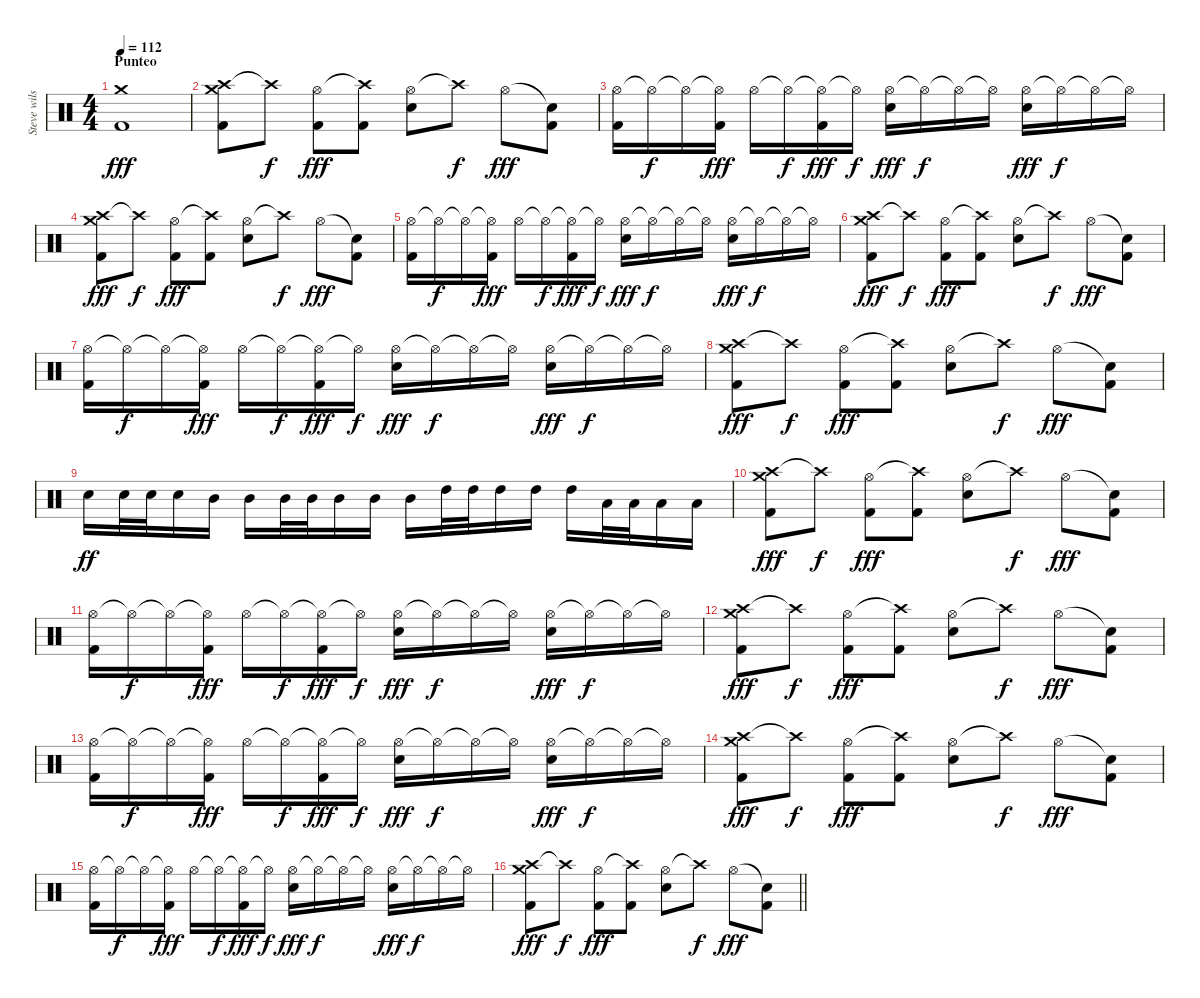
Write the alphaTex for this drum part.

\track ("Steve wilson" "Steve wils") {instrument percussion}
\staff {score}
\articulation defaults
\ts (4 4)
\section ("" "Punteo")
\tempo 112
\clef neutral
\ks c
("Crash medium (hit)" "Kick (hit) 2").1{dy fff} |
("Crash high (hit)" "Crash medium (hit)" "Kick (hit) 2").8 "Crash high (hit)"{t}.8{dy f} ("Hi-Hat (open)" "Kick (hit) 2").8{dy fff} ("Crash high (hit)"{t} "Kick (hit) 2").8 ("Hi-Hat (open)" "Electric Snare (hit)").8 "Crash high (hit)"{t}.8{dy f} "Hi-Hat (open)".8{dy fff} ("Snare (hit)"{t} "Kick (hit) 2").8 |
("Hi-Hat (open)" "Kick (hit) 2").16 "Hi-Hat (open)"{t}.16{dy f} "Hi-Hat (open)"{t}.16 ("Hi-Hat (open)"{t} "Kick (hit) 2").16{dy fff} "Hi-Hat (open)".16 "Hi-Hat (open)"{t}.16{dy f} ("Hi-Hat (open)"{t} "Kick (hit) 2").16{dy fff} "Hi-Hat (open)"{t}.16{dy f} ("Hi-Hat (open)" "Electric Snare (hit)").16{dy fff} "Hi-Hat (open)"{t}.16{dy f} "Hi-Hat (open)"{t}.16 "Hi-Hat (open)"{t}.16 ("Hi-Hat (open)" "Electric Snare (hit)").16{dy fff} "Hi-Hat (open)"{t}.16{dy f} "Hi-Hat (open)"{t}.16 "Hi-Hat (open)"{t}.16 |
("Crash high (hit)" "Crash medium (hit)" "Kick (hit) 2").8{dy fff} "Crash high (hit)"{t}.8{dy f} ("Hi-Hat (open)" "Kick (hit) 2").8{dy fff} ("Crash high (hit)"{t} "Kick (hit) 2").8 ("Hi-Hat (open)" "Electric Snare (hit)").8 "Crash high (hit)"{t}.8{dy f} "Hi-Hat (open)".8{dy fff} ("Snare (hit)"{t} "Kick (hit) 2").8 |
("Hi-Hat (open)" "Kick (hit) 2").16 "Hi-Hat (open)"{t}.16{dy f} "Hi-Hat (open)"{t}.16 ("Hi-Hat (open)"{t} "Kick (hit) 2").16{dy fff} "Hi-Hat (open)".16 "Hi-Hat (open)"{t}.16{dy f} ("Hi-Hat (open)"{t} "Kick (hit) 2").16{dy fff} "Hi-Hat (open)"{t}.16{dy f} ("Hi-Hat (open)" "Electric Snare (hit)").16{dy fff} "Hi-Hat (open)"{t}.16{dy f} "Hi-Hat (open)"{t}.16 "Hi-Hat (open)"{t}.16 ("Hi-Hat (open)" "Electric Snare (hit)").16{dy fff} "Hi-Hat (open)"{t}.16{dy f} "Hi-Hat (open)"{t}.16 "Hi-Hat (open)"{t}.16 |
("Crash high (hit)" "Crash medium (hit)" "Kick (hit) 2").8{dy fff} "Crash high (hit)"{t}.8{dy f} ("Hi-Hat (open)" "Kick (hit) 2").8{dy fff} ("Crash high (hit)"{t} "Kick (hit) 2").8 ("Hi-Hat (open)" "Electric Snare (hit)").8 "Crash high (hit)"{t}.8{dy f} "Hi-Hat (open)".8{dy fff} ("Snare (hit)"{t} "Kick (hit) 2").8 |
("Hi-Hat (open)" "Kick (hit) 2").16 "Hi-Hat (open)"{t}.16{dy f} "Hi-Hat (open)"{t}.16 ("Hi-Hat (open)"{t} "Kick (hit) 2").16{dy fff} "Hi-Hat (open)".16 "Hi-Hat (open)"{t}.16{dy f} ("Hi-Hat (open)"{t} "Kick (hit) 2").16{dy fff} "Hi-Hat (open)"{t}.16{dy f} ("Hi-Hat (open)" "Electric Snare (hit)").16{dy fff} "Hi-Hat (open)"{t}.16{dy f} "Hi-Hat (open)"{t}.16 "Hi-Hat (open)"{t}.16 ("Hi-Hat (open)" "Electric Snare (hit)").16{dy fff} "Hi-Hat (open)"{t}.16{dy f} "Hi-Hat (open)"{t}.16 "Hi-Hat (open)"{t}.16 |
("Crash high (hit)" "Crash medium (hit)" "Kick (hit) 2").8{dy fff} "Crash high (hit)"{t}.8{dy f} ("Hi-Hat (open)" "Kick (hit) 2").8{dy fff} ("Crash high (hit)"{t} "Kick (hit) 2").8 ("Hi-Hat (open)" "Electric Snare (hit)").8 "Crash high (hit)"{t}.8{dy f} "Hi-Hat (open)".8{dy fff} ("Snare (hit)"{t} "Kick (hit) 2").8 |
"Electric Snare (hit)".16{dy ff} "Electric Snare (hit)".32 "Electric Snare (hit)".32 "Electric Snare (hit)".16 "Mid Tom (hit)".16 "Mid Tom (hit)".16 "Mid Tom (hit)".32 "Mid Tom (hit)".32 "Mid Tom (hit)".16 "Mid Tom (hit)".16 "Mid Tom (hit)".16 "High Tom (hit)".32 "High Tom (hit)".32 "High Tom (hit)".16 "High Tom (hit)".16 "High Tom (hit)".16 "Low Tom (hit)".32 "Low Tom (hit)".32 "Low Tom (hit)".16 "Low Tom (hit)".16 |
("Crash high (hit)" "Crash medium (hit)" "Kick (hit) 2").8{dy fff} "Crash high (hit)"{t}.8{dy f} ("Hi-Hat (open)" "Kick (hit) 2").8{dy fff} ("Crash high (hit)"{t} "Kick (hit) 2").8 ("Hi-Hat (open)" "Electric Snare (hit)").8 "Crash high (hit)"{t}.8{dy f} "Hi-Hat (open)".8{dy fff} ("Snare (hit)"{t} "Kick (hit) 2").8 |
("Hi-Hat (open)" "Kick (hit) 2").16 "Hi-Hat (open)"{t}.16{dy f} "Hi-Hat (open)"{t}.16 ("Hi-Hat (open)"{t} "Kick (hit) 2").16{dy fff} "Hi-Hat (open)".16 "Hi-Hat (open)"{t}.16{dy f} ("Hi-Hat (open)"{t} "Kick (hit) 2").16{dy fff} "Hi-Hat (open)"{t}.16{dy f} ("Hi-Hat (open)" "Electric Snare (hit)").16{dy fff} "Hi-Hat (open)"{t}.16{dy f} "Hi-Hat (open)"{t}.16 "Hi-Hat (open)"{t}.16 ("Hi-Hat (open)" "Electric Snare (hit)").16{dy fff} "Hi-Hat (open)"{t}.16{dy f} "Hi-Hat (open)"{t}.16 "Hi-Hat (open)"{t}.16 |
("Crash high (hit)" "Crash medium (hit)" "Kick (hit) 2").8{dy fff} "Crash high (hit)"{t}.8{dy f} ("Hi-Hat (open)" "Kick (hit) 2").8{dy fff} ("Crash high (hit)"{t} "Kick (hit) 2").8 ("Hi-Hat (open)" "Electric Snare (hit)").8 "Crash high (hit)"{t}.8{dy f} "Hi-Hat (open)".8{dy fff} ("Snare (hit)"{t} "Kick (hit) 2").8 |
("Hi-Hat (open)" "Kick (hit) 2").16 "Hi-Hat (open)"{t}.16{dy f} "Hi-Hat (open)"{t}.16 ("Hi-Hat (open)"{t} "Kick (hit) 2").16{dy fff} "Hi-Hat (open)".16 "Hi-Hat (open)"{t}.16{dy f} ("Hi-Hat (open)"{t} "Kick (hit) 2").16{dy fff} "Hi-Hat (open)"{t}.16{dy f} ("Hi-Hat (open)" "Electric Snare (hit)").16{dy fff} "Hi-Hat (open)"{t}.16{dy f} "Hi-Hat (open)"{t}.16 "Hi-Hat (open)"{t}.16 ("Hi-Hat (open)" "Electric Snare (hit)").16{dy fff} "Hi-Hat (open)"{t}.16{dy f} "Hi-Hat (open)"{t}.16 "Hi-Hat (open)"{t}.16 |
("Crash high (hit)" "Crash medium (hit)" "Kick (hit) 2").8{dy fff} "Crash high (hit)"{t}.8{dy f} ("Hi-Hat (open)" "Kick (hit) 2").8{dy fff} ("Crash high (hit)"{t} "Kick (hit) 2").8 ("Hi-Hat (open)" "Electric Snare (hit)").8 "Crash high (hit)"{t}.8{dy f} "Hi-Hat (open)".8{dy fff} ("Snare (hit)"{t} "Kick (hit) 2").8 |
("Hi-Hat (open)" "Kick (hit) 2").16 "Hi-Hat (open)"{t}.16{dy f} "Hi-Hat (open)"{t}.16 ("Hi-Hat (open)"{t} "Kick (hit) 2").16{dy fff} "Hi-Hat (open)".16 "Hi-Hat (open)"{t}.16{dy f} ("Hi-Hat (open)"{t} "Kick (hit) 2").16{dy fff} "Hi-Hat (open)"{t}.16{dy f} ("Hi-Hat (open)" "Electric Snare (hit)").16{dy fff} "Hi-Hat (open)"{t}.16{dy f} "Hi-Hat (open)"{t}.16 "Hi-Hat (open)"{t}.16 ("Hi-Hat (open)" "Electric Snare (hit)").16{dy fff} "Hi-Hat (open)"{t}.16{dy f} "Hi-Hat (open)"{t}.16 "Hi-Hat (open)"{t}.16 |
\barLineRight lightlight
("Crash high (hit)" "Crash medium (hit)" "Kick (hit) 2").8{dy fff} "Crash high (hit)"{t}.8{dy f} ("Hi-Hat (open)" "Kick (hit) 2").8{dy fff} ("Crash high (hit)"{t} "Kick (hit) 2").8 ("Hi-Hat (open)" "Electric Snare (hit)").8 "Crash high (hit)"{t}.8{dy f} "Hi-Hat (open)".8{dy fff} ("Snare (hit)"{t} "Kick (hit) 2").8
